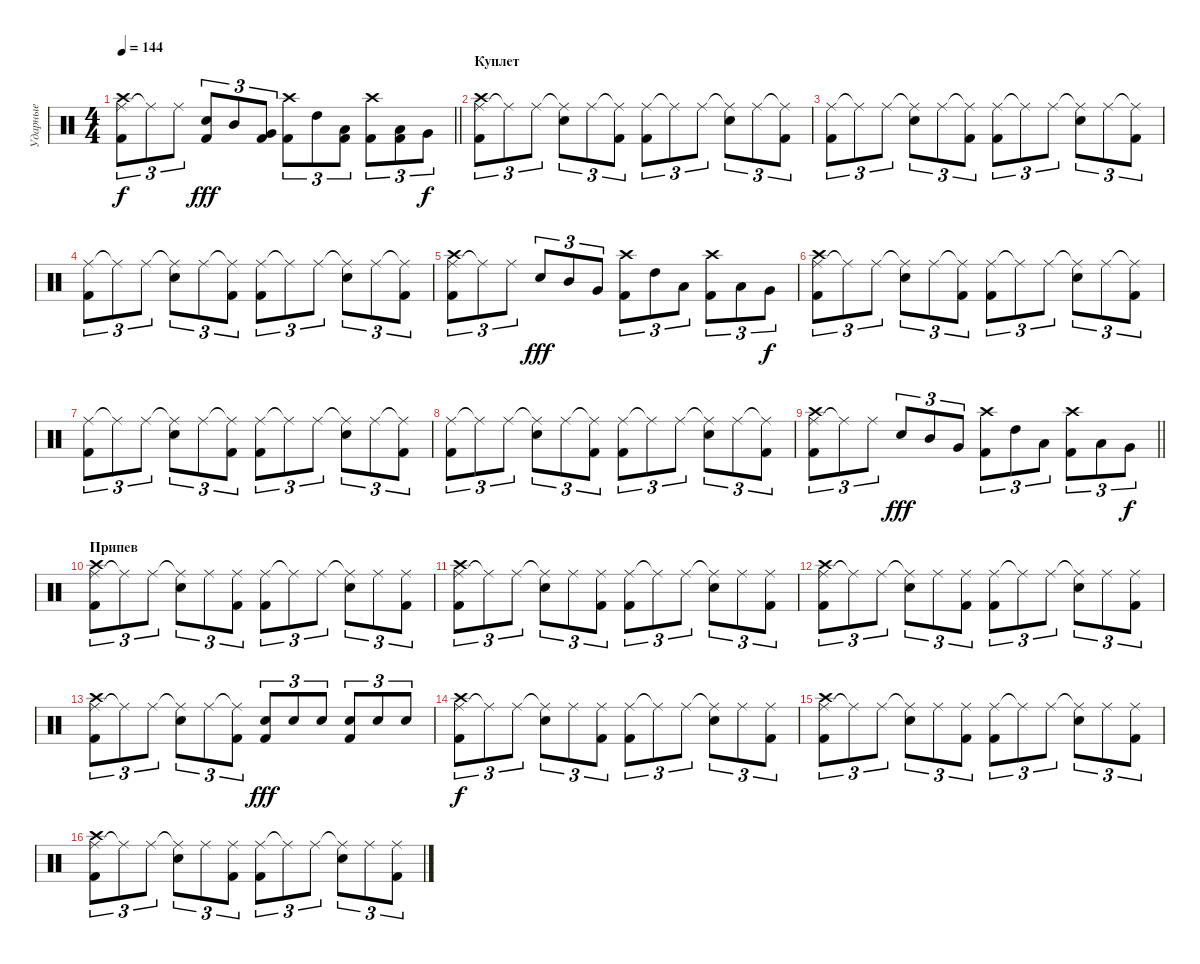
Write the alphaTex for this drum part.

\track ("Ударные" "Ударные") {instrument percussion}
\staff {score}
\articulation defaults
\ts (4 4)
\tempo 144
\clef neutral
\barLineRight lightlight
\ks c
("Ride (middle)" "Kick (hit) 2" "Crash high (hit)").8{tu (3 2) dy f} "Ride (middle)"{t}.8{tu (3 2)} "Ride (middle)".8{tu (3 2)} ("Snare (hit) 2" "Kick (hit) 2").8{tu (3 2) dy fff} "Mid Tom (hit)".8{tu (3 2)} ("Very Low Tom (hit)" "Kick (hit) 2").8{tu (3 2)} ("Kick (hit) 2" "Crash high (hit)").8{tu (3 2)} "High Tom (hit)".8{tu (3 2)} ("Low Tom (hit)" "Kick (hit) 2").8{tu (3 2)} ("Crash high (hit)" "Kick (hit) 2").8{tu (3 2)} ("Low Tom (hit)" "Kick (hit) 2").8{tu (3 2)} "Very Low Tom (hit)".8{tu (3 2) dy f} |
\section ("" "Куплет")
("Ride (middle)" "Kick (hit) 2" "Crash high (hit)").8{tu (3 2)} "Ride (middle)"{t}.8{tu (3 2)} "Ride (middle)".8{tu (3 2)} ("Ride (middle)"{t} "Snare (hit) 2").8{tu (3 2)} "Ride (middle)".8{tu (3 2)} ("Ride (middle)"{t} "Kick (hit) 2").8{tu (3 2)} ("Ride (middle)" "Kick (hit) 2").8{tu (3 2)} "Ride (middle)"{t}.8{tu (3 2)} "Ride (middle)".8{tu (3 2)} ("Ride (middle)"{t} "Snare (hit) 2").8{tu (3 2)} "Ride (middle)".8{tu (3 2)} ("Ride (middle)"{t} "Kick (hit) 2").8{tu (3 2)} |
("Ride (middle)" "Kick (hit) 2").8{tu (3 2)} "Ride (middle)"{t}.8{tu (3 2)} "Ride (middle)".8{tu (3 2)} ("Ride (middle)"{t} "Snare (hit) 2").8{tu (3 2)} "Ride (middle)".8{tu (3 2)} ("Ride (middle)"{t} "Kick (hit) 2").8{tu (3 2)} ("Ride (middle)" "Kick (hit) 2").8{tu (3 2)} "Ride (middle)"{t}.8{tu (3 2)} "Ride (middle)".8{tu (3 2)} ("Ride (middle)"{t} "Snare (hit) 2").8{tu (3 2)} "Ride (middle)".8{tu (3 2)} ("Ride (middle)"{t} "Kick (hit) 2").8{tu (3 2)} |
("Ride (middle)" "Kick (hit) 2").8{tu (3 2)} "Ride (middle)"{t}.8{tu (3 2)} "Ride (middle)".8{tu (3 2)} ("Ride (middle)"{t} "Snare (hit) 2").8{tu (3 2)} "Ride (middle)".8{tu (3 2)} ("Ride (middle)"{t} "Kick (hit) 2").8{tu (3 2)} ("Ride (middle)" "Kick (hit) 2").8{tu (3 2)} "Ride (middle)"{t}.8{tu (3 2)} "Ride (middle)".8{tu (3 2)} ("Ride (middle)"{t} "Snare (hit) 2").8{tu (3 2)} "Ride (middle)".8{tu (3 2)} ("Ride (middle)"{t} "Kick (hit) 2").8{tu (3 2)} |
("Ride (middle)" "Kick (hit) 2" "Crash high (hit)").8{tu (3 2)} "Ride (middle)"{t}.8{tu (3 2)} "Ride (middle)".8{tu (3 2)} "Snare (hit) 2".8{tu (3 2) dy fff} "Mid Tom (hit)".8{tu (3 2)} "Very Low Tom (hit)".8{tu (3 2)} ("Kick (hit) 2" "Crash high (hit)").8{tu (3 2)} "High Tom (hit)".8{tu (3 2)} "Low Tom (hit)".8{tu (3 2)} ("Crash high (hit)" "Kick (hit) 2").8{tu (3 2)} "Low Tom (hit)".8{tu (3 2)} "Very Low Tom (hit)".8{tu (3 2) dy f} |
("Ride (middle)" "Kick (hit) 2" "Crash high (hit)").8{tu (3 2)} "Ride (middle)"{t}.8{tu (3 2)} "Ride (middle)".8{tu (3 2)} ("Ride (middle)"{t} "Snare (hit) 2").8{tu (3 2)} "Ride (middle)".8{tu (3 2)} ("Ride (middle)"{t} "Kick (hit) 2").8{tu (3 2)} ("Ride (middle)" "Kick (hit) 2").8{tu (3 2)} "Ride (middle)"{t}.8{tu (3 2)} "Ride (middle)".8{tu (3 2)} ("Ride (middle)"{t} "Snare (hit) 2").8{tu (3 2)} "Ride (middle)".8{tu (3 2)} ("Ride (middle)"{t} "Kick (hit) 2").8{tu (3 2)} |
("Ride (middle)" "Kick (hit) 2").8{tu (3 2)} "Ride (middle)"{t}.8{tu (3 2)} "Ride (middle)".8{tu (3 2)} ("Ride (middle)"{t} "Snare (hit) 2").8{tu (3 2)} "Ride (middle)".8{tu (3 2)} ("Ride (middle)"{t} "Kick (hit) 2").8{tu (3 2)} ("Ride (middle)" "Kick (hit) 2").8{tu (3 2)} "Ride (middle)"{t}.8{tu (3 2)} "Ride (middle)".8{tu (3 2)} ("Ride (middle)"{t} "Snare (hit) 2").8{tu (3 2)} "Ride (middle)".8{tu (3 2)} ("Ride (middle)"{t} "Kick (hit) 2").8{tu (3 2)} |
("Ride (middle)" "Kick (hit) 2").8{tu (3 2)} "Ride (middle)"{t}.8{tu (3 2)} "Ride (middle)".8{tu (3 2)} ("Ride (middle)"{t} "Snare (hit) 2").8{tu (3 2)} "Ride (middle)".8{tu (3 2)} ("Ride (middle)"{t} "Kick (hit) 2").8{tu (3 2)} ("Ride (middle)" "Kick (hit) 2").8{tu (3 2)} "Ride (middle)"{t}.8{tu (3 2)} "Ride (middle)".8{tu (3 2)} ("Ride (middle)"{t} "Snare (hit) 2").8{tu (3 2)} "Ride (middle)".8{tu (3 2)} ("Ride (middle)"{t} "Kick (hit) 2").8{tu (3 2)} |
\barLineRight lightlight
("Ride (middle)" "Kick (hit) 2" "Crash high (hit)").8{tu (3 2)} "Ride (middle)"{t}.8{tu (3 2)} "Ride (middle)".8{tu (3 2)} "Snare (hit) 2".8{tu (3 2) dy fff} "Mid Tom (hit)".8{tu (3 2)} "Very Low Tom (hit)".8{tu (3 2)} ("Kick (hit) 2" "Crash high (hit)").8{tu (3 2)} "High Tom (hit)".8{tu (3 2)} "Low Tom (hit)".8{tu (3 2)} ("Crash high (hit)" "Kick (hit) 2").8{tu (3 2)} "Low Tom (hit)".8{tu (3 2)} "Very Low Tom (hit)".8{tu (3 2) dy f} |
\section ("" "Припев")
("Ride (middle)" "Kick (hit) 2" "Crash high (hit)").8{tu (3 2)} "Ride (middle)"{t}.8{tu (3 2)} "Ride (middle)".8{tu (3 2)} ("Ride (middle)"{t} "Snare (hit) 2").8{tu (3 2)} "Ride (middle)".8{tu (3 2)} ("Ride (middle)" "Kick (hit) 2").8{tu (3 2)} ("Ride (middle)" "Kick (hit) 2").8{tu (3 2)} "Ride (middle)"{t}.8{tu (3 2)} "Ride (middle)".8{tu (3 2)} ("Ride (middle)"{t} "Snare (hit) 2").8{tu (3 2)} "Ride (middle)".8{tu (3 2)} ("Ride (middle)" "Kick (hit) 2").8{tu (3 2)} |
("Ride (middle)" "Kick (hit) 2" "Crash high (hit)").8{tu (3 2)} "Ride (middle)"{t}.8{tu (3 2)} "Ride (middle)".8{tu (3 2)} ("Ride (middle)"{t} "Snare (hit) 2").8{tu (3 2)} "Ride (middle)".8{tu (3 2)} ("Ride (middle)" "Kick (hit) 2").8{tu (3 2)} ("Ride (middle)" "Kick (hit) 2").8{tu (3 2)} "Ride (middle)"{t}.8{tu (3 2)} "Ride (middle)".8{tu (3 2)} ("Ride (middle)"{t} "Snare (hit) 2").8{tu (3 2)} "Ride (middle)".8{tu (3 2)} ("Ride (middle)" "Kick (hit) 2").8{tu (3 2)} |
("Ride (middle)" "Kick (hit) 2" "Crash high (hit)").8{tu (3 2)} "Ride (middle)"{t}.8{tu (3 2)} "Ride (middle)".8{tu (3 2)} ("Ride (middle)"{t} "Snare (hit) 2").8{tu (3 2)} "Ride (middle)".8{tu (3 2)} ("Ride (middle)" "Kick (hit) 2").8{tu (3 2)} ("Ride (middle)" "Kick (hit) 2").8{tu (3 2)} "Ride (middle)"{t}.8{tu (3 2)} "Ride (middle)".8{tu (3 2)} ("Ride (middle)"{t} "Snare (hit) 2").8{tu (3 2)} "Ride (middle)".8{tu (3 2)} ("Ride (middle)" "Kick (hit) 2").8{tu (3 2)} |
("Ride (middle)" "Kick (hit) 2" "Crash high (hit)").8{tu (3 2)} "Ride (middle)"{t}.8{tu (3 2)} "Ride (middle)".8{tu (3 2)} ("Ride (middle)"{t} "Snare (hit) 2").8{tu (3 2)} "Ride (middle)".8{tu (3 2)} ("Ride (middle)"{t} "Kick (hit) 2").8{tu (3 2)} ("Snare (hit) 2" "Kick (hit) 2").8{tu (3 2) dy fff} "Snare (hit) 2".8{tu (3 2)} "Snare (hit) 2".8{tu (3 2)} ("Snare (hit) 2" "Kick (hit) 2").8{tu (3 2)} "Snare (hit) 2".8{tu (3 2)} "Snare (hit) 2".8{tu (3 2)} |
("Ride (middle)" "Kick (hit) 2" "Crash high (hit)").8{tu (3 2) dy f} "Ride (middle)"{t}.8{tu (3 2)} "Ride (middle)".8{tu (3 2)} ("Ride (middle)"{t} "Snare (hit) 2").8{tu (3 2)} "Ride (middle)".8{tu (3 2)} ("Ride (middle)" "Kick (hit) 2").8{tu (3 2)} ("Ride (middle)" "Kick (hit) 2").8{tu (3 2)} "Ride (middle)"{t}.8{tu (3 2)} "Ride (middle)".8{tu (3 2)} ("Ride (middle)"{t} "Snare (hit) 2").8{tu (3 2)} "Ride (middle)".8{tu (3 2)} ("Ride (middle)" "Kick (hit) 2").8{tu (3 2)} |
("Ride (middle)" "Kick (hit) 2" "Crash high (hit)").8{tu (3 2)} "Ride (middle)"{t}.8{tu (3 2)} "Ride (middle)".8{tu (3 2)} ("Ride (middle)"{t} "Snare (hit) 2").8{tu (3 2)} "Ride (middle)".8{tu (3 2)} ("Ride (middle)" "Kick (hit) 2").8{tu (3 2)} ("Ride (middle)" "Kick (hit) 2").8{tu (3 2)} "Ride (middle)"{t}.8{tu (3 2)} "Ride (middle)".8{tu (3 2)} ("Ride (middle)"{t} "Snare (hit) 2").8{tu (3 2)} "Ride (middle)".8{tu (3 2)} ("Ride (middle)" "Kick (hit) 2").8{tu (3 2)} |
("Ride (middle)" "Kick (hit) 2" "Crash high (hit)").8{tu (3 2)} "Ride (middle)"{t}.8{tu (3 2)} "Ride (middle)".8{tu (3 2)} ("Ride (middle)"{t} "Snare (hit) 2").8{tu (3 2)} "Ride (middle)".8{tu (3 2)} ("Ride (middle)" "Kick (hit) 2").8{tu (3 2)} ("Ride (middle)" "Kick (hit) 2").8{tu (3 2)} "Ride (middle)"{t}.8{tu (3 2)} "Ride (middle)".8{tu (3 2)} ("Ride (middle)"{t} "Snare (hit) 2").8{tu (3 2)} "Ride (middle)".8{tu (3 2)} ("Ride (middle)" "Kick (hit) 2").8{tu (3 2)}
